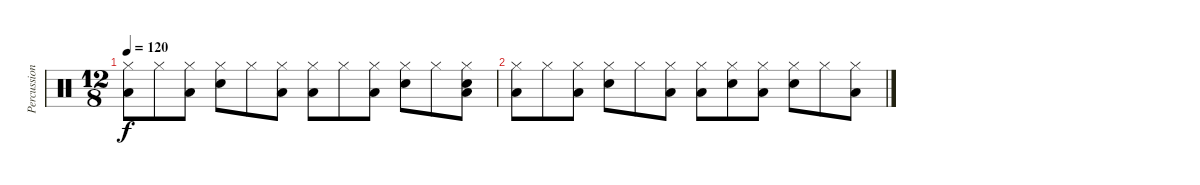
\track ("Percussion" "Percussion") {instrument percussion}
\staff {score}
\articulation defaults
\ts (12 8)
\tempo 120
\clef neutral
\ks c
("Low Tom (hit)" "Hi-Hat (closed)").8{dy f} "Hi-Hat (closed)".8 ("Low Tom (hit)" "Hi-Hat (closed)").8 ("Electric Snare (hit)" "Hi-Hat (closed)").8 "Hi-Hat (closed)".8 ("Low Tom (hit)" "Hi-Hat (closed)").8 ("Low Tom (hit)" "Hi-Hat (closed)").8 "Hi-Hat (closed)".8 ("Low Tom (hit)" "Hi-Hat (closed)").8 ("Electric Snare (hit)" "Hi-Hat (closed)").8 "Hi-Hat (closed)".8 ("Electric Snare (hit)" "Low Tom (hit)" "Hi-Hat (closed)").8 |
("Low Tom (hit)" "Hi-Hat (closed)").8 "Hi-Hat (closed)".8 ("Low Tom (hit)" "Hi-Hat (closed)").8 ("Electric Snare (hit)" "Hi-Hat (closed)").8 "Hi-Hat (closed)".8 ("Low Tom (hit)" "Hi-Hat (closed)").8 ("Low Tom (hit)" "Hi-Hat (closed)").8 ("Electric Snare (hit)" "Hi-Hat (closed)").8 ("Low Tom (hit)" "Hi-Hat (closed)").8 ("Electric Snare (hit)" "Hi-Hat (closed)").8 "Hi-Hat (closed)".8 ("Low Tom (hit)" "Hi-Hat (closed)").8
